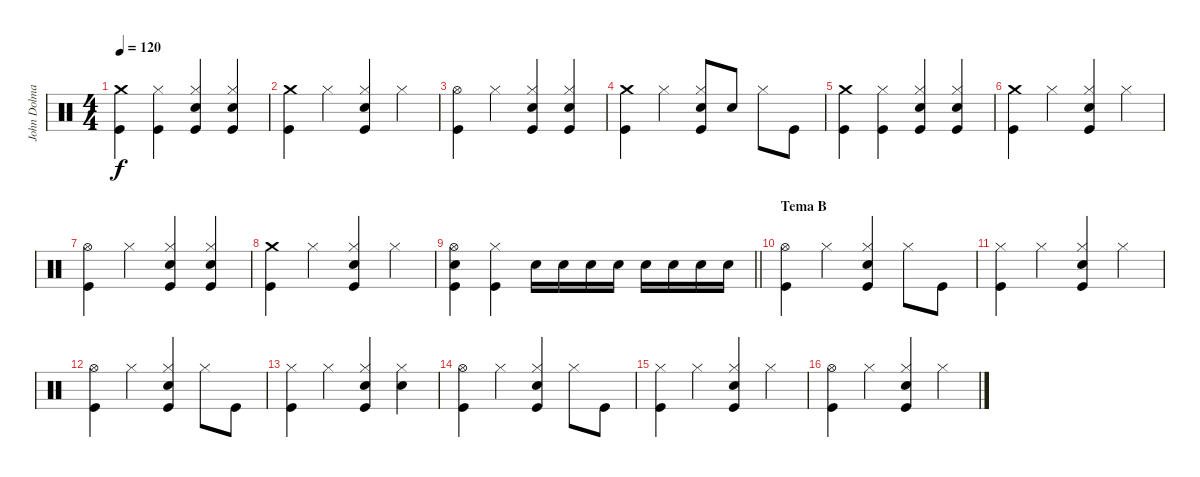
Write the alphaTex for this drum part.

\track ("John Dolmayan (Bateria)" "John Dolma") {instrument percussion}
\staff {score}
\articulation defaults
\ts (4 4)
\tempo 120
\clef neutral
\ks c
("Crash medium (hit)" "Kick (hit)").4{dy f} ("Hi-Hat (closed)" "Kick (hit)").4 ("Hi-Hat (closed)" "Snare (hit) 2" "Kick (hit)").4 ("Hi-Hat (closed)" "Snare (hit) 2" "Kick (hit)").4 |
("Crash medium (hit)" "Kick (hit)").4 "Hi-Hat (closed)".4 ("Hi-Hat (closed)" "Snare (hit) 2" "Kick (hit)").4 "Hi-Hat (closed)".4 |
("Hi-Hat (open)" "Kick (hit)").4 "Hi-Hat (closed)".4 ("Hi-Hat (closed)" "Snare (hit) 2" "Kick (hit)").4 ("Hi-Hat (closed)" "Snare (hit) 2" "Kick (hit)").4 |
("Crash medium (hit)" "Kick (hit)").4 "Hi-Hat (closed)".4 ("Hi-Hat (closed)" "Snare (hit) 2" "Kick (hit)").8 "Snare (hit) 2".8 "Hi-Hat (closed)".8 "Kick (hit)".8 |
("Crash medium (hit)" "Kick (hit)").4 ("Hi-Hat (closed)" "Kick (hit)").4 ("Hi-Hat (closed)" "Snare (hit) 2" "Kick (hit)").4 ("Hi-Hat (closed)" "Snare (hit) 2" "Kick (hit)").4 |
("Crash medium (hit)" "Kick (hit)").4 "Hi-Hat (closed)".4 ("Hi-Hat (closed)" "Snare (hit) 2" "Kick (hit)").4 "Hi-Hat (closed)".4 |
("Hi-Hat (open)" "Kick (hit)").4 "Hi-Hat (closed)".4 ("Hi-Hat (closed)" "Snare (hit) 2" "Kick (hit)").4 ("Hi-Hat (closed)" "Snare (hit) 2" "Kick (hit)").4 |
("Crash medium (hit)" "Kick (hit)").4 "Hi-Hat (closed)".4 ("Hi-Hat (closed)" "Snare (hit) 2" "Kick (hit)").4 "Hi-Hat (closed)".4 |
\barLineRight lightlight
("Hi-Hat (open)" "Snare (hit) 2" "Kick (hit)").4 ("Hi-Hat (closed)" "Kick (hit)").4 "Snare (hit) 2".16 "Snare (hit) 2".16 "Snare (hit) 2".16 "Snare (hit) 2".16 "Snare (hit) 2".16 "Snare (hit) 2".16 "Snare (hit) 2".16 "Snare (hit) 2".16 |
\section ("" "Tema B")
("Hi-Hat (open)" "Kick (hit)").4 "Hi-Hat (closed)".4 ("Hi-Hat (closed)" "Snare (hit) 2" "Kick (hit)").4 "Hi-Hat (closed)".8 "Kick (hit)".8 |
("Hi-Hat (closed)" "Kick (hit)").4 "Hi-Hat (closed)".4 ("Hi-Hat (closed)" "Snare (hit) 2" "Kick (hit)").4 "Hi-Hat (closed)".4 |
("Hi-Hat (open)" "Kick (hit)").4 "Hi-Hat (closed)".4 ("Hi-Hat (closed)" "Snare (hit) 2" "Kick (hit)").4 "Hi-Hat (closed)".8 "Kick (hit)".8 |
("Hi-Hat (closed)" "Kick (hit)").4 "Hi-Hat (closed)".4 ("Hi-Hat (closed)" "Snare (hit) 2" "Kick (hit)").4 ("Hi-Hat (closed)" "Snare (hit) 2").4 |
("Hi-Hat (open)" "Kick (hit)").4 "Hi-Hat (closed)".4 ("Hi-Hat (closed)" "Snare (hit) 2" "Kick (hit)").4 "Hi-Hat (closed)".8 "Kick (hit)".8 |
("Hi-Hat (closed)" "Kick (hit)").4 "Hi-Hat (closed)".4 ("Hi-Hat (closed)" "Snare (hit) 2" "Kick (hit)").4 "Hi-Hat (closed)".4 |
("Hi-Hat (open)" "Kick (hit)").4 "Hi-Hat (closed)".4 ("Hi-Hat (closed)" "Snare (hit) 2" "Kick (hit)").4 "Hi-Hat (closed)".4
